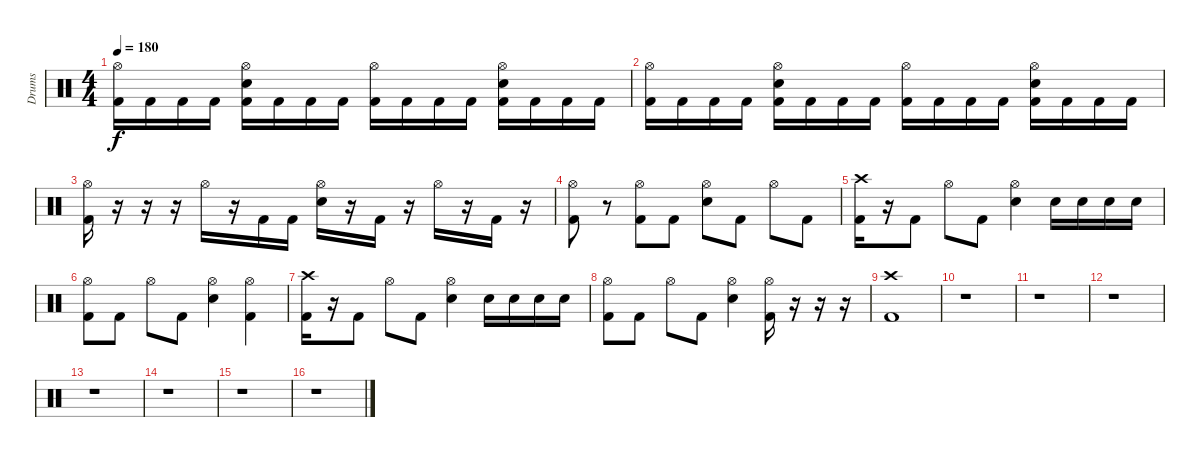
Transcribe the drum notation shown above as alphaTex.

\track ("Drums" "Drums") {instrument percussion}
\staff {score}
\articulation defaults
\ts (4 4)
\tempo 180
\clef neutral
\ks c
("Hi-Hat (open)" "Kick (hit) 2").16{dy f} "Kick (hit) 2".16 "Kick (hit) 2".16 "Kick (hit) 2".16 ("Hi-Hat (open)" "Electric Snare (hit)" "Kick (hit) 2").16 "Kick (hit) 2".16 "Kick (hit) 2".16 "Kick (hit) 2".16 ("Hi-Hat (open)" "Kick (hit) 2").16 "Kick (hit) 2".16 "Kick (hit) 2".16 "Kick (hit) 2".16 ("Hi-Hat (open)" "Electric Snare (hit)" "Kick (hit) 2").16 "Kick (hit) 2".16 "Kick (hit) 2".16 "Kick (hit) 2".16 |
("Hi-Hat (open)" "Kick (hit) 2").16 "Kick (hit) 2".16 "Kick (hit) 2".16 "Kick (hit) 2".16 ("Hi-Hat (open)" "Electric Snare (hit)" "Kick (hit) 2").16 "Kick (hit) 2".16 "Kick (hit) 2".16 "Kick (hit) 2".16 ("Hi-Hat (open)" "Kick (hit) 2").16 "Kick (hit) 2".16 "Kick (hit) 2".16 "Kick (hit) 2".16 ("Hi-Hat (open)" "Electric Snare (hit)" "Kick (hit) 2").16 "Kick (hit) 2".16 "Kick (hit) 2".16 "Kick (hit) 2".16 |
("Hi-Hat (open)" "Kick (hit) 2").16 r.16 r.16 r.16 "Hi-Hat (open)".16 r.16 "Kick (hit) 2".16 "Kick (hit) 2".16 ("Hi-Hat (open)" "Electric Snare (hit)").16 r.16 "Kick (hit) 2".16 r.16 "Hi-Hat (open)".16 r.16 "Kick (hit) 2".16 r.16 |
("Hi-Hat (open)" "Kick (hit) 2").8 r.8 ("Hi-Hat (open)" "Kick (hit) 2").8 "Kick (hit) 2".8 ("Hi-Hat (open)" "Electric Snare (hit)").8 "Kick (hit) 2".8 "Hi-Hat (open)".8 "Kick (hit) 2".8 |
("Crash high (hit)" "Kick (hit) 2").16 r.16 "Kick (hit) 2".8 "Hi-Hat (open)".8 "Kick (hit) 2".8 ("Hi-Hat (open)" "Electric Snare (hit)").4 "Electric Snare (hit)".16 "Electric Snare (hit)".16 "Electric Snare (hit)".16 "Electric Snare (hit)".16 |
("Hi-Hat (open)" "Kick (hit) 2").8 "Kick (hit) 2".8 "Hi-Hat (open)".8 "Kick (hit) 2".8 ("Hi-Hat (open)" "Electric Snare (hit)").4 ("Hi-Hat (open)" "Kick (hit) 2").4 |
("Crash high (hit)" "Kick (hit) 2").16 r.16 "Kick (hit) 2".8 "Hi-Hat (open)".8 "Kick (hit) 2".8 ("Hi-Hat (open)" "Electric Snare (hit)").4 "Electric Snare (hit)".16 "Electric Snare (hit)".16 "Electric Snare (hit)".16 "Electric Snare (hit)".16 |
("Hi-Hat (open)" "Kick (hit) 2").8 "Kick (hit) 2".8 "Hi-Hat (open)".8 "Kick (hit) 2".8 ("Hi-Hat (open)" "Electric Snare (hit)").4 ("Hi-Hat (open)" "Kick (hit) 2").16 r.16 r.16 r.16 |
("Crash high (hit)" "Kick (hit) 2").1 |
r.1 |
r.1 |
r.1 |
r.1 |
r.1 |
r.1 |
r.1
